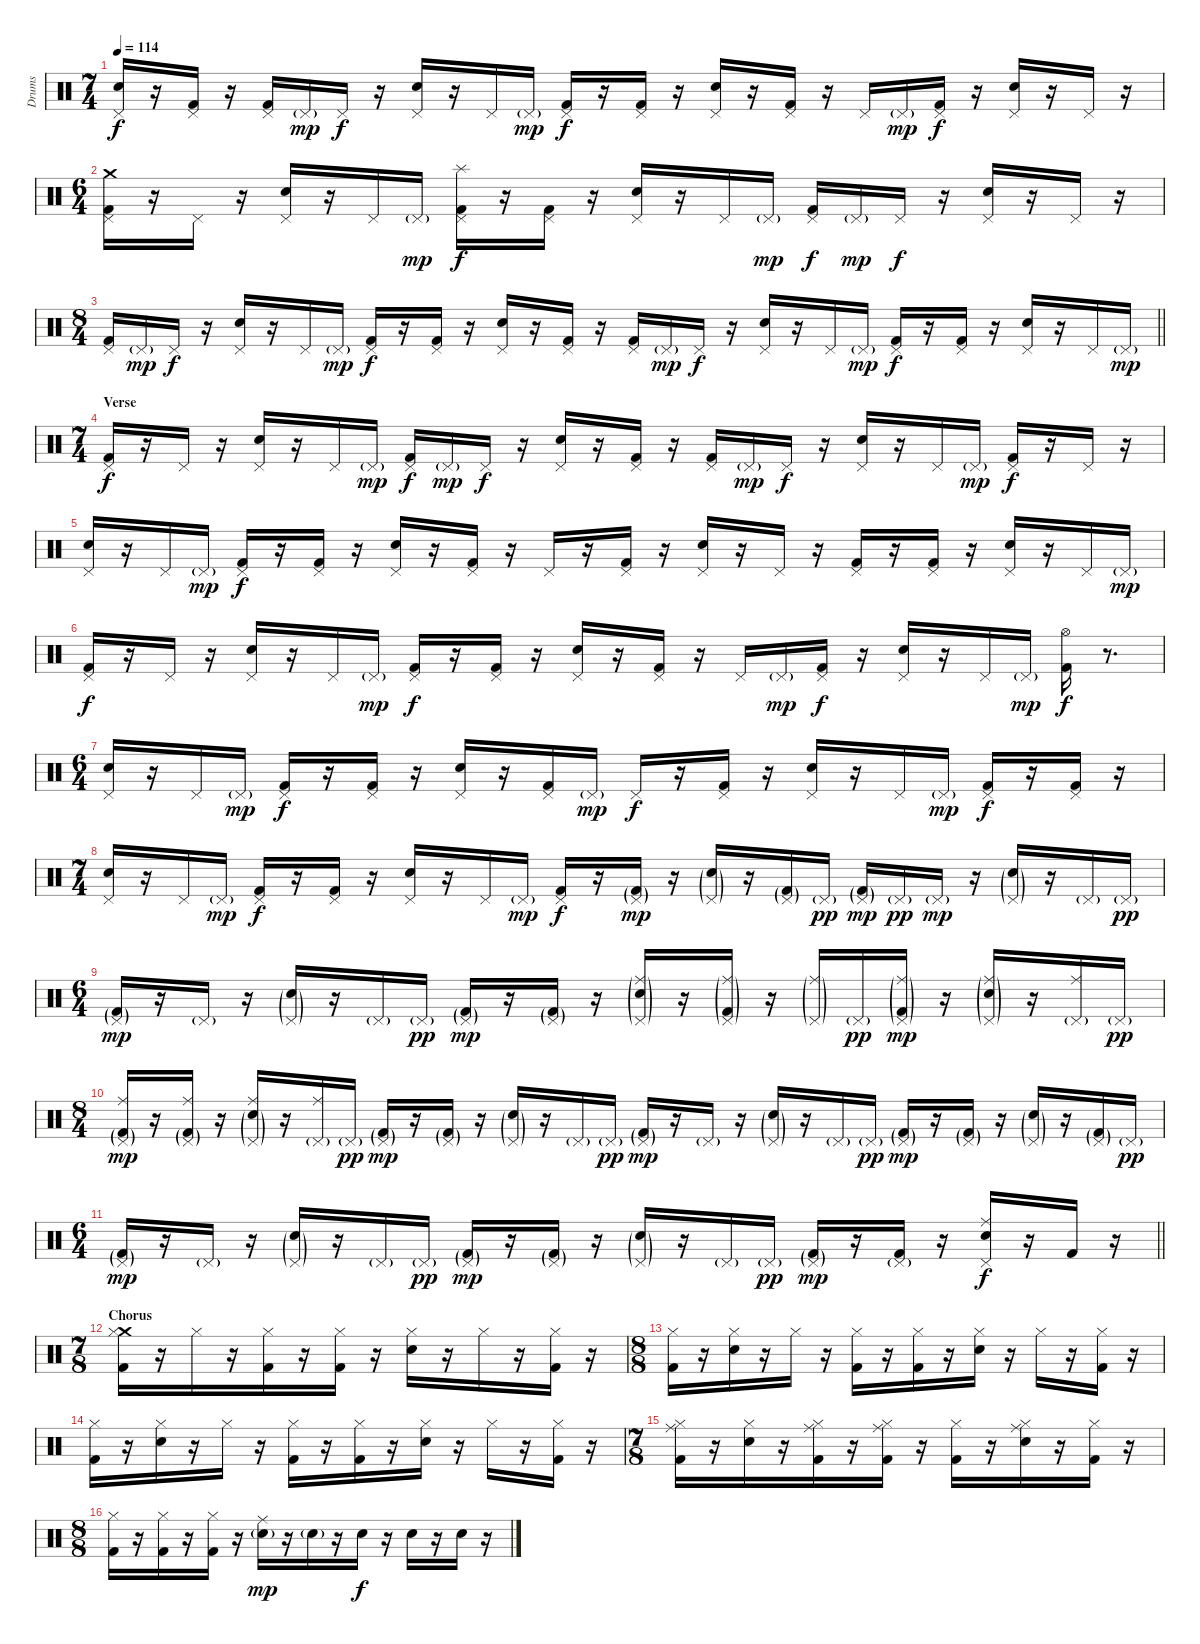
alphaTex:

\track ("Drums" "Drums") {instrument percussion}
\staff {score}
\articulation defaults
\ts (7 4)
\tempo 114
\clef neutral
\ks c
("Pedal Hi-Hat (hit)" "Snare (hit) 2").16{dy f} r.16 ("Pedal Hi-Hat (hit)" "Kick (hit) 2").16 r.16 ("Pedal Hi-Hat (hit)" "Kick (hit) 2").16 "Pedal Hi-Hat (hit)"{g}.16{dy mp} "Pedal Hi-Hat (hit)".16{dy f} r.16 ("Pedal Hi-Hat (hit)" "Snare (hit) 2").16 r.16 "Pedal Hi-Hat (hit)".16 "Pedal Hi-Hat (hit)"{g}.16{dy mp} ("Pedal Hi-Hat (hit)" "Kick (hit) 2").16{dy f} r.16 ("Pedal Hi-Hat (hit)" "Kick (hit) 2").16 r.16 ("Pedal Hi-Hat (hit)" "Snare (hit) 2").16 r.16 ("Pedal Hi-Hat (hit)" "Kick (hit) 2").16 r.16 "Pedal Hi-Hat (hit)".16 "Pedal Hi-Hat (hit)"{g}.16{dy mp} ("Pedal Hi-Hat (hit)" "Kick (hit) 2").16{dy f} r.16 ("Pedal Hi-Hat (hit)" "Snare (hit) 2").16 r.16 "Pedal Hi-Hat (hit)".16 r.16 |
\ts (6 4)
("Crash medium (hit)" "Pedal Hi-Hat (hit)" "Kick (hit) 2").16 r.16 "Pedal Hi-Hat (hit)".16 r.16 ("Pedal Hi-Hat (hit)" "Snare (hit) 2").16 r.16 "Pedal Hi-Hat (hit)".16 "Pedal Hi-Hat (hit)"{g}.16{dy mp} ("Splash (hit)" "Pedal Hi-Hat (hit)" "Kick (hit) 2").16{dy f} r.16 ("Pedal Hi-Hat (hit)" "Kick (hit) 2").16 r.16 ("Pedal Hi-Hat (hit)" "Snare (hit) 2").16 r.16 "Pedal Hi-Hat (hit)".16 "Pedal Hi-Hat (hit)"{g}.16{dy mp} ("Pedal Hi-Hat (hit)" "Kick (hit) 2").16{dy f} "Pedal Hi-Hat (hit)"{g}.16{dy mp} "Pedal Hi-Hat (hit)".16{dy f} r.16 ("Pedal Hi-Hat (hit)" "Snare (hit) 2").16 r.16 "Pedal Hi-Hat (hit)".16 r.16 |
\ts (8 4)
\barLineRight lightlight
("Pedal Hi-Hat (hit)" "Kick (hit) 2").16 "Pedal Hi-Hat (hit)"{g}.16{dy mp} "Pedal Hi-Hat (hit)".16{dy f} r.16 ("Pedal Hi-Hat (hit)" "Snare (hit) 2").16 r.16 "Pedal Hi-Hat (hit)".16 "Pedal Hi-Hat (hit)"{g}.16{dy mp} ("Pedal Hi-Hat (hit)" "Kick (hit) 2").16{dy f} r.16 ("Pedal Hi-Hat (hit)" "Kick (hit) 2").16 r.16 ("Pedal Hi-Hat (hit)" "Snare (hit) 2").16 r.16 ("Pedal Hi-Hat (hit)" "Kick (hit) 2").16 r.16 ("Pedal Hi-Hat (hit)" "Kick (hit) 2").16 "Pedal Hi-Hat (hit)"{g}.16{dy mp} "Pedal Hi-Hat (hit)".16{dy f} r.16 ("Pedal Hi-Hat (hit)" "Snare (hit) 2").16 r.16 "Pedal Hi-Hat (hit)".16 "Pedal Hi-Hat (hit)"{g}.16{dy mp} ("Pedal Hi-Hat (hit)" "Kick (hit) 2").16{dy f} r.16 ("Pedal Hi-Hat (hit)" "Kick (hit) 2").16 r.16 ("Pedal Hi-Hat (hit)" "Snare (hit) 2").16 r.16 "Pedal Hi-Hat (hit)".16 "Pedal Hi-Hat (hit)"{g}.16{dy mp} |
\ts (7 4)
\section ("" "Verse")
("Pedal Hi-Hat (hit)" "Kick (hit) 2").16{dy f} r.16 "Pedal Hi-Hat (hit)".16 r.16 ("Pedal Hi-Hat (hit)" "Snare (hit) 2").16 r.16 "Pedal Hi-Hat (hit)".16 "Pedal Hi-Hat (hit)"{g}.16{dy mp} ("Pedal Hi-Hat (hit)" "Kick (hit) 2").16{dy f} "Pedal Hi-Hat (hit)"{g}.16{dy mp} "Pedal Hi-Hat (hit)".16{dy f} r.16 ("Pedal Hi-Hat (hit)" "Snare (hit) 2").16 r.16 ("Pedal Hi-Hat (hit)" "Kick (hit) 2").16 r.16 ("Pedal Hi-Hat (hit)" "Kick (hit) 2").16 "Pedal Hi-Hat (hit)"{g}.16{dy mp} "Pedal Hi-Hat (hit)".16{dy f} r.16 ("Pedal Hi-Hat (hit)" "Snare (hit) 2").16 r.16 "Pedal Hi-Hat (hit)".16 "Pedal Hi-Hat (hit)"{g}.16{dy mp} ("Pedal Hi-Hat (hit)" "Kick (hit) 2").16{dy f} r.16 "Pedal Hi-Hat (hit)".16 r.16 |
("Pedal Hi-Hat (hit)" "Snare (hit) 2").16 r.16 "Pedal Hi-Hat (hit)".16 "Pedal Hi-Hat (hit)"{g}.16{dy mp} ("Pedal Hi-Hat (hit)" "Kick (hit) 2").16{dy f} r.16 ("Pedal Hi-Hat (hit)" "Kick (hit) 2").16 r.16 ("Pedal Hi-Hat (hit)" "Snare (hit) 2").16 r.16 ("Pedal Hi-Hat (hit)" "Kick (hit) 2").16 r.16 "Pedal Hi-Hat (hit)".16 r.16 ("Pedal Hi-Hat (hit)" "Kick (hit) 2").16 r.16 ("Pedal Hi-Hat (hit)" "Snare (hit) 2").16 r.16 "Pedal Hi-Hat (hit)".16 r.16 ("Pedal Hi-Hat (hit)" "Kick (hit) 2").16 r.16 ("Pedal Hi-Hat (hit)" "Kick (hit) 2").16 r.16 ("Pedal Hi-Hat (hit)" "Snare (hit) 2").16 r.16 "Pedal Hi-Hat (hit)".16 "Pedal Hi-Hat (hit)"{g}.16{dy mp} |
("Pedal Hi-Hat (hit)" "Kick (hit) 2").16{dy f} r.16 "Pedal Hi-Hat (hit)".16 r.16 ("Pedal Hi-Hat (hit)" "Snare (hit) 2").16 r.16 "Pedal Hi-Hat (hit)".16 "Pedal Hi-Hat (hit)"{g}.16{dy mp} ("Pedal Hi-Hat (hit)" "Kick (hit) 2").16{dy f} r.16 ("Pedal Hi-Hat (hit)" "Kick (hit) 2").16 r.16 ("Pedal Hi-Hat (hit)" "Snare (hit) 2").16 r.16 ("Pedal Hi-Hat (hit)" "Kick (hit) 2").16 r.16 "Pedal Hi-Hat (hit)".16 "Pedal Hi-Hat (hit)"{g}.16{dy mp} ("Pedal Hi-Hat (hit)" "Kick (hit) 2").16{dy f} r.16 ("Pedal Hi-Hat (hit)" "Snare (hit) 2").16 r.16 "Pedal Hi-Hat (hit)".16 "Pedal Hi-Hat (hit)"{g}.16{dy mp} ("Hi-Hat (open)" "Kick (hit) 2").16{dy f} r.8{d} |
\ts (6 4)
("Pedal Hi-Hat (hit)" "Snare (hit) 2").16 r.16 "Pedal Hi-Hat (hit)".16 "Pedal Hi-Hat (hit)"{g}.16{dy mp} ("Pedal Hi-Hat (hit)" "Kick (hit) 2").16{dy f} r.16 ("Pedal Hi-Hat (hit)" "Kick (hit) 2").16 r.16 ("Pedal Hi-Hat (hit)" "Snare (hit) 2").16 r.16 ("Pedal Hi-Hat (hit)" "Kick (hit) 2").16 "Pedal Hi-Hat (hit)"{g}.16{dy mp} "Pedal Hi-Hat (hit)".16{dy f} r.16 ("Pedal Hi-Hat (hit)" "Kick (hit) 2").16 r.16 ("Pedal Hi-Hat (hit)" "Snare (hit) 2").16 r.16 "Pedal Hi-Hat (hit)".16 "Pedal Hi-Hat (hit)"{g}.16{dy mp} ("Pedal Hi-Hat (hit)" "Kick (hit) 2").16{dy f} r.16 ("Pedal Hi-Hat (hit)" "Kick (hit) 2").16 r.16 |
\ts (7 4)
("Pedal Hi-Hat (hit)" "Snare (hit) 2").16 r.16 "Pedal Hi-Hat (hit)".16 "Pedal Hi-Hat (hit)"{g}.16{dy mp} ("Pedal Hi-Hat (hit)" "Kick (hit) 2").16{dy f} r.16 ("Pedal Hi-Hat (hit)" "Kick (hit) 2").16 r.16 ("Pedal Hi-Hat (hit)" "Snare (hit) 2").16 r.16 "Pedal Hi-Hat (hit)".16 "Pedal Hi-Hat (hit)"{g}.16{dy mp} ("Pedal Hi-Hat (hit)" "Kick (hit) 2").16{dy f} r.16 ("Pedal Hi-Hat (hit)"{g} "Kick (hit) 2"{g}).16{dy mp} r.16 ("Pedal Hi-Hat (hit)"{g} "Snare (hit) 2"{g}).16 r.16 ("Pedal Hi-Hat (hit)"{g} "Kick (hit) 2"{g}).16 "Pedal Hi-Hat (hit)"{g}.16{dy pp} ("Pedal Hi-Hat (hit)"{g} "Kick (hit) 2"{g}).16{dy mp} "Pedal Hi-Hat (hit)"{g}.16{dy pp} "Pedal Hi-Hat (hit)"{g}.16{dy mp} r.16 ("Pedal Hi-Hat (hit)"{g} "Snare (hit) 2"{g}).16 r.16 "Pedal Hi-Hat (hit)"{g}.16 "Pedal Hi-Hat (hit)"{g}.16{dy pp} |
\ts (6 4)
("Pedal Hi-Hat (hit)"{g} "Kick (hit) 2"{g}).16{dy mp} r.16 "Pedal Hi-Hat (hit)"{g}.16 r.16 ("Pedal Hi-Hat (hit)"{g} "Snare (hit) 2"{g}).16 r.16 "Pedal Hi-Hat (hit)"{g}.16 "Pedal Hi-Hat (hit)"{g}.16{dy pp} ("Pedal Hi-Hat (hit)"{g} "Kick (hit) 2"{g}).16{dy mp} r.16 ("Pedal Hi-Hat (hit)"{g} "Kick (hit) 2"{g}).16 r.16 ("Ride (middle)"{g} "Pedal Hi-Hat (hit)"{g} "Snare (hit) 2"{g}).16 r.16 ("Ride (middle)"{g} "Pedal Hi-Hat (hit)"{g} "Kick (hit) 2"{g}).16 r.16 ("Ride (middle)"{g} "Pedal Hi-Hat (hit)"{g}).16 "Pedal Hi-Hat (hit)"{g}.16{dy pp} ("Ride (middle)"{g} "Pedal Hi-Hat (hit)"{g} "Kick (hit) 2"{g}).16{dy mp} r.16 ("Ride (middle)"{g} "Pedal Hi-Hat (hit)"{g} "Snare (hit) 2"{g}).16 r.16 ("Ride (middle)" "Pedal Hi-Hat (hit)"{g}).16 "Pedal Hi-Hat (hit)"{g}.16{dy pp} |
\ts (8 4)
("Ride (middle)" "Pedal Hi-Hat (hit)"{g} "Kick (hit) 2"{g}).16{dy mp} r.16 ("Ride (middle)" "Pedal Hi-Hat (hit)"{g} "Kick (hit) 2"{g}).16 r.16 ("Ride (middle)" "Pedal Hi-Hat (hit)"{g} "Snare (hit) 2"{g}).16 r.16 ("Ride (middle)" "Pedal Hi-Hat (hit)"{g}).16 "Pedal Hi-Hat (hit)"{g}.16{dy pp} ("Pedal Hi-Hat (hit)"{g} "Kick (hit) 2"{g}).16{dy mp} r.16 ("Pedal Hi-Hat (hit)"{g} "Kick (hit) 2"{g}).16 r.16 ("Pedal Hi-Hat (hit)"{g} "Snare (hit) 2"{g}).16 r.16 "Pedal Hi-Hat (hit)"{g}.16 "Pedal Hi-Hat (hit)"{g}.16{dy pp} ("Pedal Hi-Hat (hit)"{g} "Kick (hit) 2"{g}).16{dy mp} r.16 "Pedal Hi-Hat (hit)"{g}.16 r.16 ("Pedal Hi-Hat (hit)"{g} "Snare (hit) 2"{g}).16 r.16 "Pedal Hi-Hat (hit)"{g}.16 "Pedal Hi-Hat (hit)"{g}.16{dy pp} ("Pedal Hi-Hat (hit)"{g} "Kick (hit) 2"{g}).16{dy mp} r.16 ("Pedal Hi-Hat (hit)"{g} "Kick (hit) 2"{g}).16 r.16 ("Pedal Hi-Hat (hit)"{g} "Snare (hit) 2"{g}).16 r.16 ("Pedal Hi-Hat (hit)"{g} "Kick (hit) 2"{g}).16 "Pedal Hi-Hat (hit)"{g}.16{dy pp} |
\ts (6 4)
\barLineRight lightlight
("Pedal Hi-Hat (hit)"{g} "Kick (hit) 2"{g}).16{dy mp} r.16 "Pedal Hi-Hat (hit)"{g}.16 r.16 ("Pedal Hi-Hat (hit)"{g} "Snare (hit) 2"{g}).16 r.16 "Pedal Hi-Hat (hit)"{g}.16 "Pedal Hi-Hat (hit)"{g}.16{dy pp} ("Pedal Hi-Hat (hit)"{g} "Kick (hit) 2"{g}).16{dy mp} r.16 ("Pedal Hi-Hat (hit)"{g} "Kick (hit) 2"{g}).16 r.16 ("Pedal Hi-Hat (hit)"{g} "Snare (hit) 2"{g}).16 r.16 "Pedal Hi-Hat (hit)"{g}.16 "Pedal Hi-Hat (hit)"{g}.16{dy pp} ("Pedal Hi-Hat (hit)"{g} "Kick (hit) 2"{g}).16{dy mp} r.16 ("Pedal Hi-Hat (hit)"{g} "Kick (hit) 2").16 r.16 ("Ride (middle)" "Pedal Hi-Hat (hit)" "Snare (hit) 2").16{dy f} r.16 "Kick (hit) 2".16 r.16 |
\ts (7 8)
\section ("" "Chorus")
("Crash medium (hit)" "Hi-Hat (closed)" "Kick (hit) 2").16 r.16 "Hi-Hat (closed)".16 r.16 ("Hi-Hat (closed)" "Kick (hit) 2").16 r.16 ("Hi-Hat (closed)" "Kick (hit) 2").16 r.16 ("Hi-Hat (closed)" "Snare (hit) 2").16 r.16 "Hi-Hat (closed)".16 r.16 ("Hi-Hat (closed)" "Kick (hit) 2").16 r.16 |
\ts (8 8)
("Hi-Hat (closed)" "Kick (hit) 2").16 r.16 ("Hi-Hat (closed)" "Snare (hit) 2").16 r.16 "Hi-Hat (closed)".16 r.16 ("Hi-Hat (closed)" "Kick (hit) 2").16 r.16 ("Hi-Hat (closed)" "Kick (hit) 2").16 r.16 ("Hi-Hat (closed)" "Snare (hit) 2").16 r.16 "Hi-Hat (closed)".16 r.16 ("Hi-Hat (closed)" "Kick (hit) 2").16 r.16 |
("Hi-Hat (closed)" "Kick (hit) 2").16 r.16 ("Hi-Hat (closed)" "Snare (hit) 2").16 r.16 "Hi-Hat (closed)".16 r.16 ("Hi-Hat (closed)" "Kick (hit) 2").16 r.16 ("Hi-Hat (closed)" "Kick (hit) 2").16 r.16 ("Hi-Hat (closed)" "Snare (hit) 2").16 r.16 "Hi-Hat (closed)".16 r.16 ("Hi-Hat (closed)" "Kick (hit) 2").16 r.16 |
\ts (7 8)
("Ride (middle)" "Hi-Hat (closed)" "Kick (hit) 2").16 r.16 ("Hi-Hat (closed)" "Snare (hit) 2").16 r.16 ("Ride (middle)" "Hi-Hat (closed)" "Kick (hit) 2").16 r.16 ("Ride (middle)" "Hi-Hat (closed)" "Kick (hit) 2").16 r.16 ("Hi-Hat (closed)" "Kick (hit) 2").16 r.16 ("Ride (middle)" "Hi-Hat (closed)" "Snare (hit) 2").16 r.16 ("Hi-Hat (closed)" "Kick (hit) 2").16 r.16 |
\ts (8 8)
("Hi-Hat (closed)" "Kick (hit) 2").16 r.16 ("Hi-Hat (closed)" "Kick (hit) 2").16 r.16 ("Hi-Hat (closed)" "Kick (hit) 2").16 r.16 ("Ride (middle)" "Snare (hit) 2"{g}).16{dy mp} r.16 "Snare (hit) 2"{g}.16 r.16 "Snare (hit) 2".16{dy f} r.16 "Snare (hit) 2".16 r.16 "Snare (hit) 2".16 r.16
